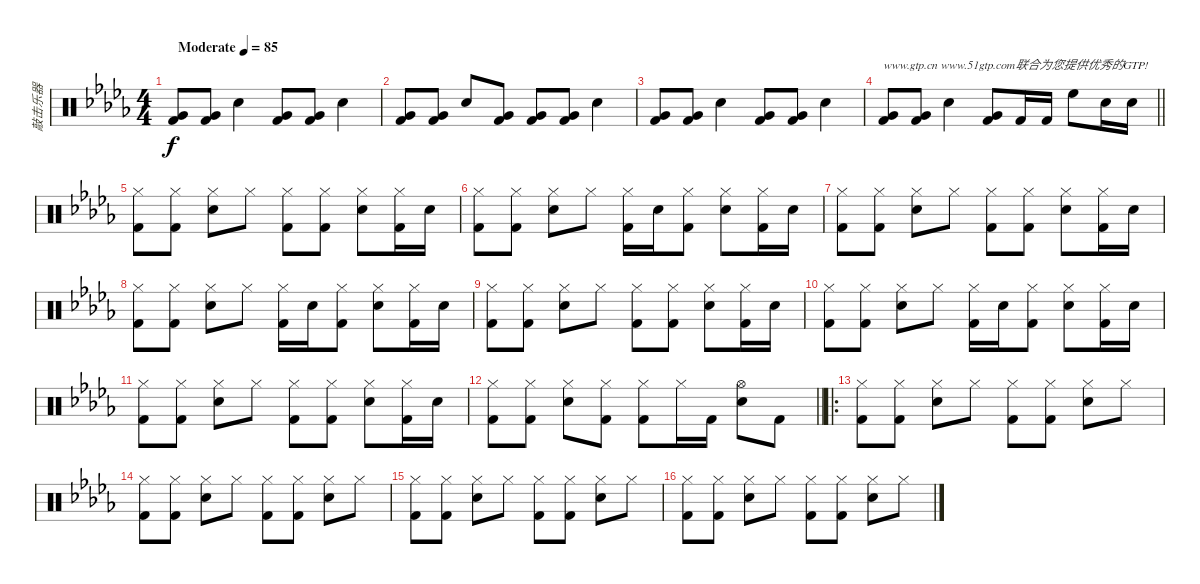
\track ("敲击乐器" "敲击乐器") {instrument percussion}
\staff {score}
\articulation defaults
\ts (4 4)
\tempo (85 "Moderate")
\clef neutral
\ks db
("Very Low Tom (hit)" "Kick (hit) 2").8{dy f} ("Very Low Tom (hit)" "Kick (hit) 2").8 "Hand Clap (hit)".4 ("Very Low Tom (hit)" "Kick (hit) 2").8 ("Very Low Tom (hit)" "Kick (hit) 2").8 "Hand Clap (hit)".4 |
("Very Low Tom (hit)" "Kick (hit) 2").8 ("Very Low Tom (hit)" "Kick (hit) 2").8 "Hand Clap (hit)".8 ("Very Low Tom (hit)" "Kick (hit) 2").8 ("Very Low Tom (hit)" "Kick (hit) 2").8 ("Very Low Tom (hit)" "Kick (hit) 2").8 "Hand Clap (hit)".4 |
("Very Low Tom (hit)" "Kick (hit) 2").8 ("Very Low Tom (hit)" "Kick (hit) 2").8 "Hand Clap (hit)".4 ("Very Low Tom (hit)" "Kick (hit) 2").8 ("Very Low Tom (hit)" "Kick (hit) 2").8 "Hand Clap (hit)".4 |
\barLineRight lightlight
("Very Low Tom (hit)" "Kick (hit) 2").8{txt "www.gtp.cn www.51gtp.com联合为您提供优秀的GTP!"} ("Very Low Tom (hit)" "Kick (hit) 2").8 "Hand Clap (hit)".4 ("Very Low Tom (hit)" "Kick (hit) 2").8 "Kick (hit) 2".16 "Kick (hit) 2".16 "High Floor Tom (hit)".8 "Electric Snare (hit)".16 "Electric Snare (hit)".16 |
("Hi-Hat (closed)" "Kick (hit) 2").8 ("Hi-Hat (closed)" "Kick (hit) 2").8 ("Hi-Hat (closed)" "Electric Snare (hit)").8 "Hi-Hat (closed)".8 ("Hi-Hat (closed)" "Kick (hit) 2").8 ("Hi-Hat (closed)" "Kick (hit) 2").8 ("Hi-Hat (closed)" "Electric Snare (hit)").8 ("Hi-Hat (closed)" "Kick (hit) 2").16 "Electric Snare (hit)".16 |
("Hi-Hat (closed)" "Kick (hit) 2").8 ("Hi-Hat (closed)" "Kick (hit) 2").8 ("Hi-Hat (closed)" "Electric Snare (hit)").8 "Hi-Hat (closed)".8 ("Hi-Hat (closed)" "Kick (hit) 2").16 "Electric Snare (hit)".16 ("Hi-Hat (closed)" "Kick (hit) 2").8 ("Hi-Hat (closed)" "Electric Snare (hit)").8 ("Hi-Hat (closed)" "Kick (hit) 2").16 "Electric Snare (hit)".16 |
("Hi-Hat (closed)" "Kick (hit) 2").8 ("Hi-Hat (closed)" "Kick (hit) 2").8 ("Hi-Hat (closed)" "Electric Snare (hit)").8 "Hi-Hat (closed)".8 ("Hi-Hat (closed)" "Kick (hit) 2").8 ("Hi-Hat (closed)" "Kick (hit) 2").8 ("Hi-Hat (closed)" "Electric Snare (hit)").8 ("Hi-Hat (closed)" "Kick (hit) 2").16 "Electric Snare (hit)".16 |
("Hi-Hat (closed)" "Kick (hit) 2").8 ("Hi-Hat (closed)" "Kick (hit) 2").8 ("Hi-Hat (closed)" "Electric Snare (hit)").8 "Hi-Hat (closed)".8 ("Hi-Hat (closed)" "Kick (hit) 2").16 "Electric Snare (hit)".16 ("Hi-Hat (closed)" "Kick (hit) 2").8 ("Hi-Hat (closed)" "Electric Snare (hit)").8 ("Hi-Hat (closed)" "Kick (hit) 2").16 "Electric Snare (hit)".16 |
("Hi-Hat (closed)" "Kick (hit) 2").8 ("Hi-Hat (closed)" "Kick (hit) 2").8 ("Hi-Hat (closed)" "Electric Snare (hit)").8 "Hi-Hat (closed)".8 ("Hi-Hat (closed)" "Kick (hit) 2").8 ("Hi-Hat (closed)" "Kick (hit) 2").8 ("Hi-Hat (closed)" "Electric Snare (hit)").8 ("Hi-Hat (closed)" "Kick (hit) 2").16 "Electric Snare (hit)".16 |
("Hi-Hat (closed)" "Kick (hit) 2").8 ("Hi-Hat (closed)" "Kick (hit) 2").8 ("Hi-Hat (closed)" "Electric Snare (hit)").8 "Hi-Hat (closed)".8 ("Hi-Hat (closed)" "Kick (hit) 2").16 "Electric Snare (hit)".16 ("Hi-Hat (closed)" "Kick (hit) 2").8 ("Hi-Hat (closed)" "Electric Snare (hit)").8 ("Hi-Hat (closed)" "Kick (hit) 2").16 "Electric Snare (hit)".16 |
("Hi-Hat (closed)" "Kick (hit) 2").8 ("Hi-Hat (closed)" "Kick (hit) 2").8 ("Hi-Hat (closed)" "Electric Snare (hit)").8 "Hi-Hat (closed)".8 ("Hi-Hat (closed)" "Kick (hit) 2").8 ("Hi-Hat (closed)" "Kick (hit) 2").8 ("Hi-Hat (closed)" "Electric Snare (hit)").8 ("Hi-Hat (closed)" "Kick (hit) 2").16 "Electric Snare (hit)".16 |
\barLineRight lightlight
("Hi-Hat (closed)" "Kick (hit) 2").8 ("Hi-Hat (closed)" "Kick (hit) 2").8 ("Hi-Hat (closed)" "Electric Snare (hit)").8 ("Hi-Hat (closed)" "Kick (hit) 2").8 ("Hi-Hat (closed)" "Kick (hit) 2").8 "Hi-Hat (closed)".16 "Kick (hit) 2".16 ("Hi-Hat (open)" "Electric Snare (hit)").8 "Kick (hit) 2".8 |
\ro
("Hi-Hat (closed)" "Kick (hit) 2").8 ("Hi-Hat (closed)" "Kick (hit) 2").8 ("Hi-Hat (closed)" "Electric Snare (hit)").8 "Hi-Hat (closed)".8 ("Hi-Hat (closed)" "Kick (hit) 2").8 ("Hi-Hat (closed)" "Kick (hit) 2").8 ("Hi-Hat (closed)" "Electric Snare (hit)").8 "Hi-Hat (closed)".8 |
("Hi-Hat (closed)" "Kick (hit) 2").8 ("Hi-Hat (closed)" "Kick (hit) 2").8 ("Hi-Hat (closed)" "Electric Snare (hit)").8 "Hi-Hat (closed)".8 ("Hi-Hat (closed)" "Kick (hit) 2").8 ("Hi-Hat (closed)" "Kick (hit) 2").8 ("Hi-Hat (closed)" "Electric Snare (hit)").8 "Hi-Hat (closed)".8 |
("Hi-Hat (closed)" "Kick (hit) 2").8 ("Hi-Hat (closed)" "Kick (hit) 2").8 ("Hi-Hat (closed)" "Electric Snare (hit)").8 "Hi-Hat (closed)".8 ("Hi-Hat (closed)" "Kick (hit) 2").8 ("Hi-Hat (closed)" "Kick (hit) 2").8 ("Hi-Hat (closed)" "Electric Snare (hit)").8 "Hi-Hat (closed)".8 |
("Hi-Hat (closed)" "Kick (hit) 2").8 ("Hi-Hat (closed)" "Kick (hit) 2").8 ("Hi-Hat (closed)" "Electric Snare (hit)").8 "Hi-Hat (closed)".8 ("Hi-Hat (closed)" "Kick (hit) 2").8 ("Hi-Hat (closed)" "Kick (hit) 2").8 ("Hi-Hat (closed)" "Electric Snare (hit)").8 "Hi-Hat (closed)".8
